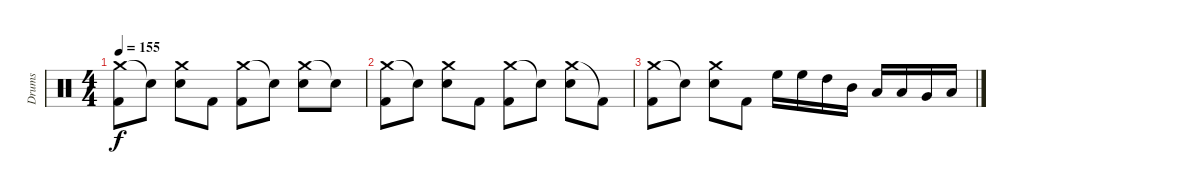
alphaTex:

\track ("Drums" "Drums") {instrument percussion}
\staff {score}
\articulation defaults
\ts (4 4)
\tempo 155
\clef neutral
\ks c
("Crash medium (hit)" "Kick (hit) 2").8{dy f} "Snare (hit)"{t}.8 ("Crash medium (hit)" "Electric Snare (hit)").8 "Kick (hit) 2".8 ("Crash medium (hit)" "Kick (hit) 2").8 "Snare (hit)"{t}.8 ("Crash medium (hit)" "Electric Snare (hit)").8 "Snare (hit)"{t}.8 |
("Crash medium (hit)" "Kick (hit) 2").8 "Snare (hit)"{t}.8 ("Crash medium (hit)" "Electric Snare (hit)").8 "Kick (hit) 2".8 ("Crash medium (hit)" "Kick (hit) 2").8 "Snare (hit)"{t}.8 ("Crash medium (hit)" "Electric Snare (hit)").8 "Kick (hit) 2"{t}.8 |
("Crash medium (hit)" "Kick (hit) 2").8 "Electric Snare (hit)"{t}.8 ("Crash medium (hit)" "Electric Snare (hit)").8 "Kick (hit) 2".8 "High Floor Tom (hit)".16 "High Floor Tom (hit)".16 "High Tom (hit)".16 "Mid Tom (hit)".16 "Low Tom (hit)".16 "Low Tom (hit)".16 "Very Low Tom (hit)".16 "Low Floor Tom (hit)".16
